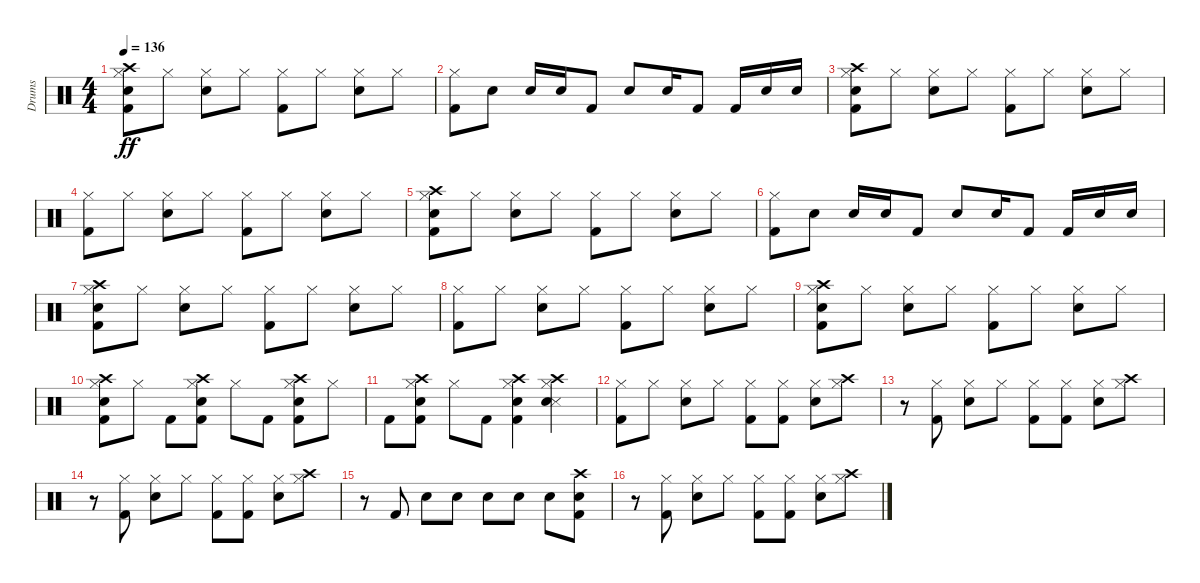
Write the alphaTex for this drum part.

\track ("Drums" "Drums") {instrument percussion}
\staff {score}
\articulation defaults
\ts (4 4)
\tempo 136
\clef neutral
\ks c
("Kick (hit) 2" "Snare (hit) 2" "Hi-Hat (closed)" "Crash high (hit)").8{dy ff} "Hi-Hat (closed)".8 ("Snare (hit) 2" "Hi-Hat (closed)").8 "Hi-Hat (closed)".8 ("Kick (hit) 2" "Hi-Hat (closed)").8 "Hi-Hat (closed)".8 ("Snare (hit) 2" "Hi-Hat (closed)").8 "Hi-Hat (closed)".8 |
("Kick (hit) 2" "Hi-Hat (closed)").8 "Snare (hit) 2".8 "Snare (hit) 2".16 "Snare (hit) 2".16 "Kick (hit) 2".8 "Snare (hit) 2".8 "Snare (hit) 2".16 "Kick (hit) 2".8 "Kick (hit) 2".16 "Snare (hit) 2".16 "Snare (hit) 2".16 |
("Kick (hit) 2" "Snare (hit) 2" "Hi-Hat (closed)" "Crash high (hit)").8 "Hi-Hat (closed)".8 ("Snare (hit) 2" "Hi-Hat (closed)").8 "Hi-Hat (closed)".8 ("Kick (hit) 2" "Hi-Hat (closed)").8 "Hi-Hat (closed)".8 ("Snare (hit) 2" "Hi-Hat (closed)").8 "Hi-Hat (closed)".8 |
("Kick (hit) 2" "Hi-Hat (closed)").8 "Hi-Hat (closed)".8 ("Snare (hit) 2" "Hi-Hat (closed)").8 "Hi-Hat (closed)".8 ("Kick (hit) 2" "Hi-Hat (closed)").8 "Hi-Hat (closed)".8 ("Snare (hit) 2" "Hi-Hat (closed)").8 "Hi-Hat (closed)".8 |
("Kick (hit) 2" "Snare (hit) 2" "Hi-Hat (closed)" "Crash high (hit)").8 "Hi-Hat (closed)".8 ("Snare (hit) 2" "Hi-Hat (closed)").8 "Hi-Hat (closed)".8 ("Kick (hit) 2" "Hi-Hat (closed)").8 "Hi-Hat (closed)".8 ("Snare (hit) 2" "Hi-Hat (closed)").8 "Hi-Hat (closed)".8 |
("Kick (hit) 2" "Hi-Hat (closed)").8 "Snare (hit) 2".8 "Snare (hit) 2".16 "Snare (hit) 2".16 "Kick (hit) 2".8 "Snare (hit) 2".8 "Snare (hit) 2".16 "Kick (hit) 2".8 "Kick (hit) 2".16 "Snare (hit) 2".16 "Snare (hit) 2".16 |
("Kick (hit) 2" "Snare (hit) 2" "Hi-Hat (closed)" "Crash high (hit)").8 "Hi-Hat (closed)".8 ("Snare (hit) 2" "Hi-Hat (closed)").8 "Hi-Hat (closed)".8 ("Kick (hit) 2" "Hi-Hat (closed)").8 "Hi-Hat (closed)".8 ("Snare (hit) 2" "Hi-Hat (closed)").8 "Hi-Hat (closed)".8 |
("Kick (hit) 2" "Hi-Hat (closed)").8 "Hi-Hat (closed)".8 ("Snare (hit) 2" "Hi-Hat (closed)").8 "Hi-Hat (closed)".8 ("Kick (hit) 2" "Hi-Hat (closed)").8 "Hi-Hat (closed)".8 ("Snare (hit) 2" "Hi-Hat (closed)").8 "Hi-Hat (closed)".8 |
("Kick (hit) 2" "Snare (hit) 2" "Hi-Hat (closed)" "Crash high (hit)").8 "Hi-Hat (closed)".8 ("Snare (hit) 2" "Hi-Hat (closed)").8 "Hi-Hat (closed)".8 ("Kick (hit) 2" "Hi-Hat (closed)").8 "Hi-Hat (closed)".8 ("Snare (hit) 2" "Hi-Hat (closed)").8 "Hi-Hat (closed)".8 |
("Kick (hit) 2" "Snare (hit) 2" "Hi-Hat (closed)" "Crash high (hit)").8 "Hi-Hat (closed)".8 "Kick (hit) 2".8 ("Kick (hit) 2" "Snare (hit) 2" "Hi-Hat (closed)" "Crash high (hit)").8 "Hi-Hat (closed)".8 "Kick (hit) 2".8 ("Kick (hit) 2" "Snare (hit) 2" "Hi-Hat (closed)" "Crash high (hit)").8 "Hi-Hat (closed)".8 |
"Kick (hit) 2".8 ("Kick (hit) 2" "Snare (hit) 2" "Hi-Hat (closed)" "Crash high (hit)").8 "Hi-Hat (closed)".8 "Kick (hit) 2".8 ("Kick (hit) 2" "Snare (hit) 2" "Hi-Hat (closed)" "Crash high (hit)").4 ("Snare (side stick) 3" "Snare (hit) 2" "Hi-Hat (closed)" "Crash high (hit)").4 |
("Kick (hit) 2" "Hi-Hat (closed)").8 "Hi-Hat (closed)".8 ("Snare (hit) 2" "Hi-Hat (closed)").8 "Hi-Hat (closed)".8 ("Kick (hit) 2" "Hi-Hat (closed)").8 ("Kick (hit) 2" "Hi-Hat (closed)").8 ("Snare (hit) 2" "Hi-Hat (closed)").8 ("Hi-Hat (closed)" "Crash high (hit)").8 |
r.8 ("Kick (hit) 2" "Hi-Hat (closed)").8 ("Snare (hit) 2" "Hi-Hat (closed)").8 "Hi-Hat (closed)".8 ("Kick (hit) 2" "Hi-Hat (closed)").8 ("Kick (hit) 2" "Hi-Hat (closed)").8 ("Snare (hit) 2" "Hi-Hat (closed)").8 ("Hi-Hat (closed)" "Crash high (hit)").8 |
r.8 ("Kick (hit) 2" "Hi-Hat (closed)").8 ("Snare (hit) 2" "Hi-Hat (closed)").8 "Hi-Hat (closed)".8 ("Kick (hit) 2" "Hi-Hat (closed)").8 ("Kick (hit) 2" "Hi-Hat (closed)").8 ("Snare (hit) 2" "Hi-Hat (closed)").8 ("Hi-Hat (closed)" "Crash high (hit)").8 |
r.8 "Kick (hit) 2".8 "Snare (hit) 2".8 "Snare (hit) 2".8 "Snare (hit) 2".8 "Snare (hit) 2".8 "Snare (hit) 2".8 ("Kick (hit) 2" "Snare (hit) 2" "Crash high (hit)").8 |
r.8 ("Kick (hit) 2" "Hi-Hat (closed)").8 ("Snare (hit) 2" "Hi-Hat (closed)").8 "Hi-Hat (closed)".8 ("Kick (hit) 2" "Hi-Hat (closed)").8 ("Kick (hit) 2" "Hi-Hat (closed)").8 ("Snare (hit) 2" "Hi-Hat (closed)").8 ("Hi-Hat (closed)" "Crash high (hit)").8
